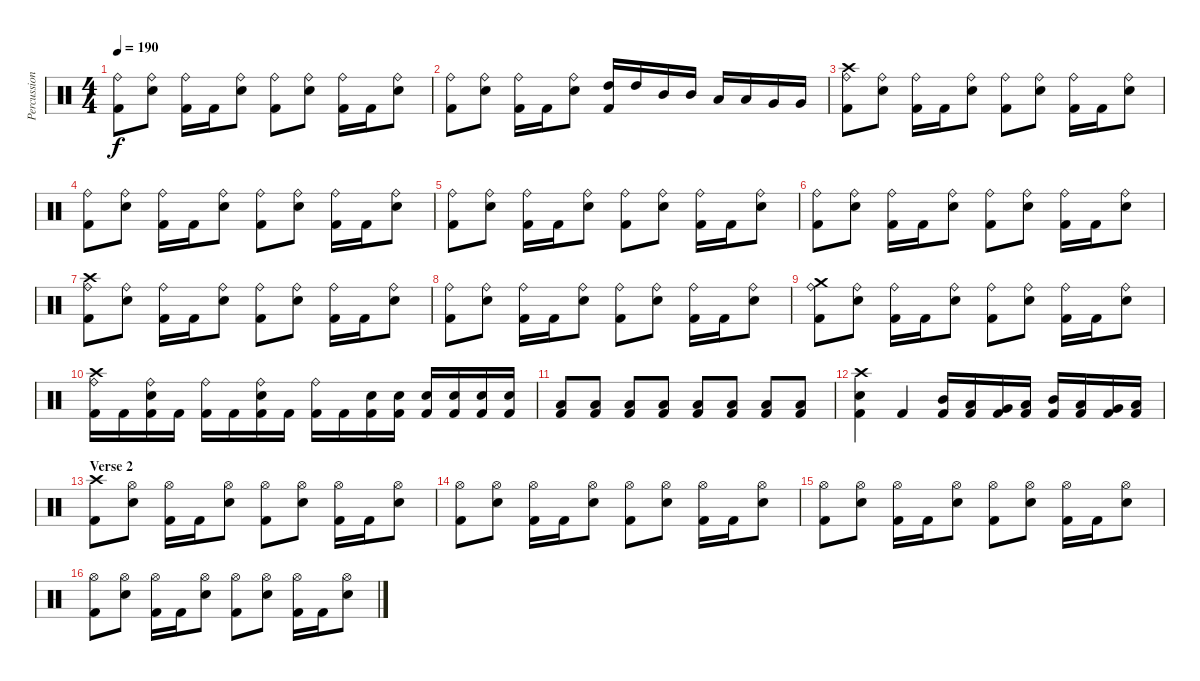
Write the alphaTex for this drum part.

\track ("Percussion" "Percussion") {instrument percussion}
\staff {score}
\articulation defaults
\ts (4 4)
\tempo 190
\clef neutral
\ks c
("Ride (bell)" "Kick (hit) 2").8{dy f} ("Ride (bell)" "Snare (hit) 2").8 ("Ride (bell)" "Kick (hit) 2").16 "Kick (hit) 2".16 ("Ride (bell)" "Snare (hit) 2").8 ("Ride (bell)" "Kick (hit) 2").8 ("Ride (bell)" "Snare (hit) 2").8 ("Ride (bell)" "Kick (hit) 2").16 "Kick (hit) 2".16 ("Ride (bell)" "Snare (hit) 2").8 |
("Ride (bell)" "Kick (hit) 2").8 ("Ride (bell)" "Snare (hit) 2").8 ("Ride (bell)" "Kick (hit) 2").16 "Kick (hit) 2".16 ("Ride (bell)" "Snare (hit) 2").8 ("High Tom (hit)" "Kick (hit) 2").16 "High Tom (hit)".16 "Mid Tom (hit)".16 "Mid Tom (hit)".16 "Low Tom (hit)".16 "Low Tom (hit)".16 "Very Low Tom (hit)".16 "Very Low Tom (hit)".16 |
("Crash high (hit)" "Ride (bell)" "Kick (hit) 2").8 ("Ride (bell)" "Snare (hit) 2").8 ("Ride (bell)" "Kick (hit) 2").16 "Kick (hit) 2".16 ("Ride (bell)" "Snare (hit) 2").8 ("Ride (bell)" "Kick (hit) 2").8 ("Ride (bell)" "Snare (hit) 2").8 ("Ride (bell)" "Kick (hit) 2").16 "Kick (hit) 2".16 ("Ride (bell)" "Snare (hit) 2").8 |
("Ride (bell)" "Kick (hit) 2").8 ("Ride (bell)" "Snare (hit) 2").8 ("Ride (bell)" "Kick (hit) 2").16 "Kick (hit) 2".16 ("Ride (bell)" "Snare (hit) 2").8 ("Ride (bell)" "Kick (hit) 2").8 ("Ride (bell)" "Snare (hit) 2").8 ("Ride (bell)" "Kick (hit) 2").16 "Kick (hit) 2".16 ("Ride (bell)" "Snare (hit) 2").8 |
("Ride (bell)" "Kick (hit) 2").8 ("Ride (bell)" "Snare (hit) 2").8 ("Ride (bell)" "Kick (hit) 2").16 "Kick (hit) 2".16 ("Ride (bell)" "Snare (hit) 2").8 ("Ride (bell)" "Kick (hit) 2").8 ("Ride (bell)" "Snare (hit) 2").8 ("Ride (bell)" "Kick (hit) 2").16 "Kick (hit) 2".16 ("Ride (bell)" "Snare (hit) 2").8 |
("Ride (bell)" "Kick (hit) 2").8 ("Ride (bell)" "Snare (hit) 2").8 ("Ride (bell)" "Kick (hit) 2").16 "Kick (hit) 2".16 ("Ride (bell)" "Snare (hit) 2").8 ("Ride (bell)" "Kick (hit) 2").8 ("Ride (bell)" "Snare (hit) 2").8 ("Ride (bell)" "Kick (hit) 2").16 "Kick (hit) 2".16 ("Ride (bell)" "Snare (hit) 2").8 |
("Crash high (hit)" "Ride (bell)" "Kick (hit) 2").8 ("Ride (bell)" "Snare (hit) 2").8 ("Ride (bell)" "Kick (hit) 2").16 "Kick (hit) 2".16 ("Ride (bell)" "Snare (hit) 2").8 ("Ride (bell)" "Kick (hit) 2").8 ("Ride (bell)" "Snare (hit) 2").8 ("Ride (bell)" "Kick (hit) 2").16 "Kick (hit) 2".16 ("Ride (bell)" "Snare (hit) 2").8 |
("Ride (bell)" "Kick (hit) 2").8 ("Ride (bell)" "Snare (hit) 2").8 ("Ride (bell)" "Kick (hit) 2").16 "Kick (hit) 2".16 ("Ride (bell)" "Snare (hit) 2").8 ("Ride (bell)" "Kick (hit) 2").8 ("Ride (bell)" "Snare (hit) 2").8 ("Ride (bell)" "Kick (hit) 2").16 "Kick (hit) 2".16 ("Ride (bell)" "Snare (hit) 2").8 |
("Crash medium (hit)" "Ride (bell)" "Kick (hit) 2").8 ("Ride (bell)" "Snare (hit) 2").8 ("Ride (bell)" "Kick (hit) 2").16 "Kick (hit) 2".16 ("Ride (bell)" "Snare (hit) 2").8 ("Ride (bell)" "Kick (hit) 2").8 ("Ride (bell)" "Snare (hit) 2").8 ("Ride (bell)" "Kick (hit) 2").16 "Kick (hit) 2".16 ("Ride (bell)" "Snare (hit) 2").8 |
("Crash high (hit)" "Ride (bell)" "Kick (hit) 2").16 "Kick (hit) 2".16 ("Ride (bell)" "Snare (hit) 2" "Kick (hit) 2").16 "Kick (hit) 2".16 ("Ride (bell)" "Kick (hit) 2").16 "Kick (hit) 2".16 ("Ride (bell)" "Snare (hit) 2" "Kick (hit) 2").16 "Kick (hit) 2".16 ("Ride (bell)" "Kick (hit) 2").16 "Kick (hit) 2".16 ("Snare (hit) 2" "Kick (hit) 2").16 ("Snare (hit) 2" "Kick (hit) 2").16 ("Snare (hit) 2" "Kick (hit) 2").16 ("Snare (hit) 2" "Kick (hit) 2").16 ("Snare (hit) 2" "Kick (hit) 2").16 ("Snare (hit) 2" "Kick (hit) 2").16 |
("Low Floor Tom (hit)" "Kick (hit) 2").8 ("Low Floor Tom (hit)" "Kick (hit) 2").8 ("Low Floor Tom (hit)" "Kick (hit) 2").8 ("Low Floor Tom (hit)" "Kick (hit) 2").8 ("Low Floor Tom (hit)" "Kick (hit) 2").8 ("Low Floor Tom (hit)" "Kick (hit) 2").8 ("Low Floor Tom (hit)" "Kick (hit) 2").8 ("Low Floor Tom (hit)" "Kick (hit) 2").8 |
("Crash high (hit)" "Snare (hit) 2" "Kick (hit) 2").4 "Kick (hit) 2".4 ("Mid Tom (hit)" "Kick (hit) 2").16 ("Low Tom (hit)" "Kick (hit) 2").16 ("Very Low Tom (hit)" "Kick (hit) 2").16 ("Low Tom (hit)" "Kick (hit) 2").16 ("Mid Tom (hit)" "Kick (hit) 2").16 ("Low Tom (hit)" "Kick (hit) 2").16 ("Very Low Tom (hit)" "Kick (hit) 2").16 ("Low Tom (hit)" "Kick (hit) 2").16 |
\section ("" "Verse 2")
("Crash high (hit)" "Kick (hit) 2").8 ("Hi-Hat (open)" "Snare (hit) 2").8 ("Hi-Hat (open)" "Kick (hit) 2").16 "Kick (hit) 2".16 ("Hi-Hat (open)" "Snare (hit) 2").8 ("Hi-Hat (open)" "Kick (hit) 2").8 ("Hi-Hat (open)" "Snare (hit) 2").8 ("Hi-Hat (open)" "Kick (hit) 2").16 "Kick (hit) 2".16 ("Hi-Hat (open)" "Snare (hit) 2").8 |
("Hi-Hat (open)" "Kick (hit) 2").8 ("Hi-Hat (open)" "Snare (hit) 2").8 ("Hi-Hat (open)" "Kick (hit) 2").16 "Kick (hit) 2".16 ("Hi-Hat (open)" "Snare (hit) 2").8 ("Hi-Hat (open)" "Kick (hit) 2").8 ("Hi-Hat (open)" "Snare (hit) 2").8 ("Hi-Hat (open)" "Kick (hit) 2").16 "Kick (hit) 2".16 ("Hi-Hat (open)" "Snare (hit) 2").8 |
("Hi-Hat (open)" "Kick (hit) 2").8 ("Hi-Hat (open)" "Snare (hit) 2").8 ("Hi-Hat (open)" "Kick (hit) 2").16 "Kick (hit) 2".16 ("Hi-Hat (open)" "Snare (hit) 2").8 ("Hi-Hat (open)" "Kick (hit) 2").8 ("Hi-Hat (open)" "Snare (hit) 2").8 ("Hi-Hat (open)" "Kick (hit) 2").16 "Kick (hit) 2".16 ("Hi-Hat (open)" "Snare (hit) 2").8 |
("Hi-Hat (open)" "Kick (hit) 2").8 ("Hi-Hat (open)" "Snare (hit) 2").8 ("Hi-Hat (open)" "Kick (hit) 2").16 "Kick (hit) 2".16 ("Hi-Hat (open)" "Snare (hit) 2").8 ("Hi-Hat (open)" "Kick (hit) 2").8 ("Hi-Hat (open)" "Snare (hit) 2").8 ("Hi-Hat (open)" "Kick (hit) 2").16 "Kick (hit) 2".16 ("Hi-Hat (open)" "Snare (hit) 2").8
